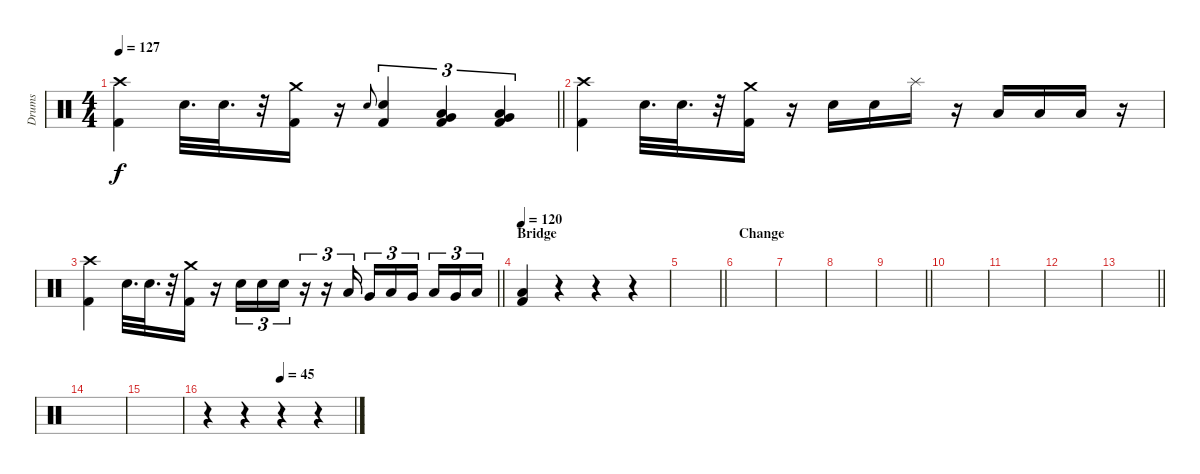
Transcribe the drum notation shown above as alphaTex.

\track ("Drums" "Drums") {instrument percussion}
\staff {score}
\articulation defaults
\ts (4 4)
\tempo 127
\clef neutral
\barLineRight lightlight
\ks c
("Crash high (hit)" "Kick (hit) 2").4{dy f} "Snare (hit) 2".32{d} "Snare (hit) 2".32{d} r.32 ("Crash medium (hit)" "Kick (hit) 2").16 r.16 "Snare (hit) 2".8{gr onbeat} ("Snare (hit) 2" "Kick (hit) 2").4{tu (3 2)} ("Very Low Tom (hit)" "Low Floor Tom (hit)" "Kick (hit) 2").4{tu (3 2)} ("Very Low Tom (hit)" "Low Floor Tom (hit)" "Kick (hit) 2").4{tu (3 2)} |
("Crash high (hit)" "Kick (hit) 2").4 "Snare (hit) 2".32{d} "Snare (hit) 2".32{d} r.32 ("Crash medium (hit)" "Kick (hit) 2").16 r.16 "Snare (hit) 2".16 "Snare (hit) 2".16 "Splash (hit)".16 r.16 "Low Tom (hit)".16 "Low Tom (hit)".16 "Low Floor Tom (hit)".16 r.16 |
\barLineRight lightlight
("Crash high (hit)" "Kick (hit) 2").4 "Snare (hit) 2".32{d} "Snare (hit) 2".32{d} r.32 ("Crash medium (hit)" "Kick (hit) 2").16 r.16 "Snare (hit) 2".16{tu (3 2)} "Snare (hit) 2".16{tu (3 2)} "Snare (hit) 2".16{tu (3 2)} r.16{tu (3 2)} r.16{tu (3 2)} "Low Tom (hit)".16{tu (3 2)} "Very Low Tom (hit)".16{tu (3 2)} "Low Tom (hit)".16{tu (3 2)} "Very Low Tom (hit)".16{tu (3 2) beam splitsecondary} "Low Tom (hit)".16{tu (3 2)} "Very Low Tom (hit)".16{tu (3 2)} "Low Tom (hit)".16{tu (3 2)} |
\section ("" "Bridge")
\tempo 120
("Low Floor Tom (hit)" "Kick (hit) 2").4 r.4 r.4 r.4 |
\barLineRight lightlight
|
\section ("" "Change")
|
|
|
\barLineRight lightlight
|
|
|
|
\barLineRight lightlight
|
|
|
\tempo (45 0.5)
r.4 r.4 r.4 r.4
